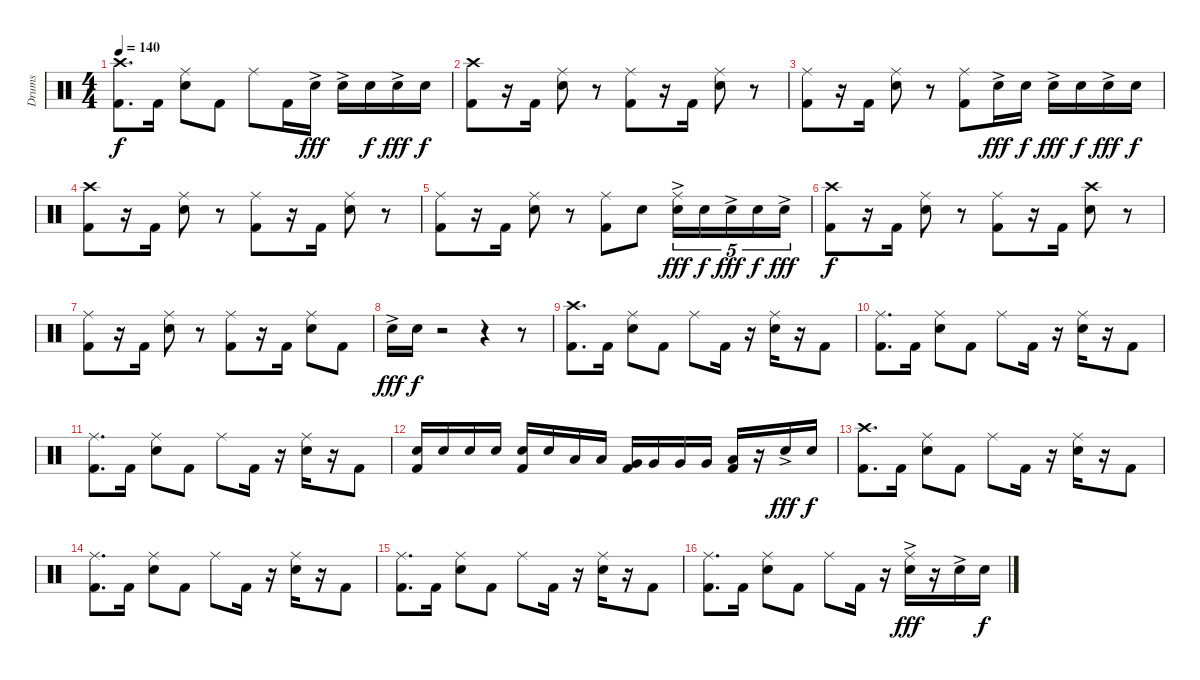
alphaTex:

\track ("Drums" "Drums") {instrument percussion}
\staff {score}
\articulation defaults
\ts (4 4)
\tempo 140
\clef neutral
\ks c
("Crash high (hit)" "Kick (hit) 2").8{d dy f} "Kick (hit) 2".16 ("Ride (middle)" "Snare (hit) 2").8 "Kick (hit) 2".8 "Ride (middle)".8 "Kick (hit) 2".16 "Snare (hit) 2"{ac}.16{dy fff} "Snare (hit) 2"{ac}.16 "Snare (hit) 2".16{dy f} "Snare (hit) 2"{ac}.16{dy fff} "Snare (hit) 2".16{dy f} |
("Crash high (hit)" "Kick (hit) 2").8 r.16 "Kick (hit) 2".16 ("Ride (middle)" "Snare (hit) 2").8 r.8 ("Ride (middle)" "Kick (hit) 2").8 r.16 "Kick (hit) 2".16 ("Ride (middle)" "Snare (hit) 2").8 r.8 |
("Ride (middle)" "Kick (hit) 2").8 r.16 "Kick (hit) 2".16 ("Ride (middle)" "Snare (hit) 2").8 r.8 ("Ride (middle)" "Kick (hit) 2").8 "Snare (hit) 2"{ac}.16{dy fff} "Snare (hit) 2".16{dy f} "Snare (hit) 2"{ac}.16{dy fff} "Snare (hit) 2".16{dy f} "Snare (hit) 2"{ac}.16{dy fff} "Snare (hit) 2".16{dy f} |
("Crash high (hit)" "Kick (hit) 2").8 r.16 "Kick (hit) 2".16 ("Ride (middle)" "Snare (hit) 2").8 r.8 ("Ride (middle)" "Kick (hit) 2").8 r.16 "Kick (hit) 2".16 ("Ride (middle)" "Snare (hit) 2").8 r.8 |
("Ride (middle)" "Kick (hit) 2").8 r.16 "Kick (hit) 2".16 ("Ride (middle)" "Snare (hit) 2").8 r.8 ("Ride (middle)" "Kick (hit) 2").8 "Snare (hit) 2".8 ("Ride (middle)" "Snare (hit) 2"{ac}).16{tu (5 4) dy fff} "Snare (hit) 2".16{tu (5 4) dy f} "Snare (hit) 2"{ac}.16{tu (5 4) dy fff} "Snare (hit) 2".16{tu (5 4) dy f} "Snare (hit) 2"{ac}.16{tu (5 4) dy fff} |
("Crash high (hit)" "Kick (hit) 2").8{dy f} r.16 "Kick (hit) 2".16 ("Ride (middle)" "Snare (hit) 2").8 r.8 ("Ride (middle)" "Kick (hit) 2").8 r.16 "Kick (hit) 2".16 ("Crash high (hit)" "Snare (hit) 2").8 r.8 |
("Ride (middle)" "Kick (hit) 2").8 r.16 "Kick (hit) 2".16 ("Ride (middle)" "Snare (hit) 2").8 r.8 ("Ride (middle)" "Kick (hit) 2").8 r.16 "Kick (hit) 2".16 ("Ride (middle)" "Snare (hit) 2").8 "Kick (hit) 2".8 |
"Snare (hit) 2"{ac}.16{dy fff} "Snare (hit) 2".16{dy f} r.2 r.4 r.8 |
("Crash high (hit)" "Kick (hit) 2").8{d} "Kick (hit) 2".16 ("Ride (middle)" "Snare (hit) 2").8 "Kick (hit) 2".8 "Ride (middle)".8 "Kick (hit) 2".16 r.16 ("Ride (middle)" "Snare (hit) 2").16 r.16 "Kick (hit) 2".8 |
("Ride (middle)" "Kick (hit) 2").8{d} "Kick (hit) 2".16 ("Ride (middle)" "Snare (hit) 2").8 "Kick (hit) 2".8 "Ride (middle)".8 "Kick (hit) 2".16 r.16 ("Ride (middle)" "Snare (hit) 2").16 r.16 "Kick (hit) 2".8 |
("Ride (middle)" "Kick (hit) 2").8{d} "Kick (hit) 2".16 ("Ride (middle)" "Snare (hit) 2").8 "Kick (hit) 2".8 "Ride (middle)".8 "Kick (hit) 2".16 r.16 ("Ride (middle)" "Snare (hit) 2").16 r.16 "Kick (hit) 2".8 |
("Snare (hit) 2" "Kick (hit) 2").16 "Snare (hit) 2".16 "Snare (hit) 2".16 "Snare (hit) 2".16 ("Snare (hit) 2" "Kick (hit) 2").16 "Snare (hit) 2".16 "Low Tom (hit)".16 "Low Tom (hit)".16 ("Very Low Tom (hit)" "Kick (hit) 2").16 "Very Low Tom (hit)".16 "Very Low Tom (hit)".16 "Very Low Tom (hit)".16 ("Low Floor Tom (hit)" "Kick (hit) 2").16 r.16 "Snare (hit) 2"{ac}.16{dy fff} "Snare (hit) 2".16{dy f} |
("Crash high (hit)" "Kick (hit) 2").8{d} "Kick (hit) 2".16 ("Ride (middle)" "Snare (hit) 2").8 "Kick (hit) 2".8 "Ride (middle)".8 "Kick (hit) 2".16 r.16 ("Ride (middle)" "Snare (hit) 2").16 r.16 "Kick (hit) 2".8 |
("Ride (middle)" "Kick (hit) 2").8{d} "Kick (hit) 2".16 ("Ride (middle)" "Snare (hit) 2").8 "Kick (hit) 2".8 "Ride (middle)".8 "Kick (hit) 2".16 r.16 ("Ride (middle)" "Snare (hit) 2").16 r.16 "Kick (hit) 2".8 |
("Ride (middle)" "Kick (hit) 2").8{d} "Kick (hit) 2".16 ("Ride (middle)" "Snare (hit) 2").8 "Kick (hit) 2".8 "Ride (middle)".8 "Kick (hit) 2".16 r.16 ("Ride (middle)" "Snare (hit) 2").16 r.16 "Kick (hit) 2".8 |
("Ride (middle)" "Kick (hit) 2").8{d} "Kick (hit) 2".16 ("Ride (middle)" "Snare (hit) 2").8 "Kick (hit) 2".8 "Ride (middle)".8 "Kick (hit) 2".16 r.16 ("Ride (middle)" "Snare (hit) 2"{ac}).16{dy fff} r.16 "Snare (hit) 2"{ac}.16 "Snare (hit) 2".16{dy f}
